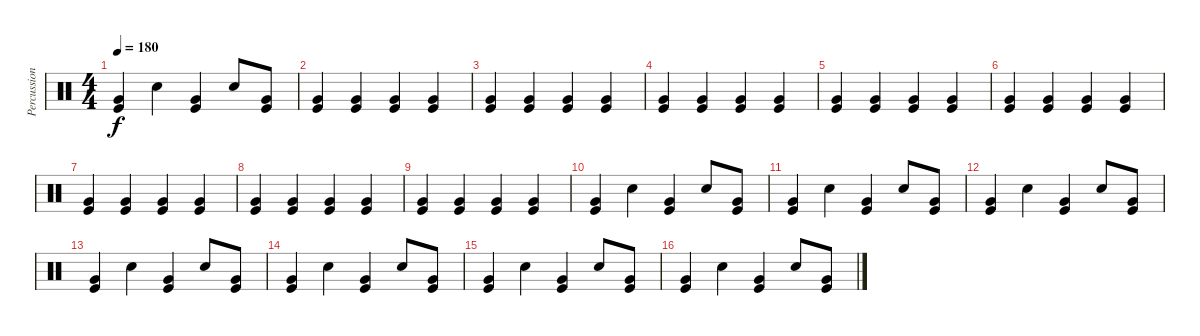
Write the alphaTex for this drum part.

\track ("Percussions" "Percussion") {instrument percussion}
\staff {score}
\articulation defaults
\ts (4 4)
\tempo 180
\clef neutral
\ks c
("Very Low Tom (hit)" "Kick (hit)").4{dy f} "Hand Clap (hit)".4 ("Very Low Tom (hit)" "Kick (hit)").4 "Hand Clap (hit)".8 ("Very Low Tom (hit)" "Kick (hit)").8 |
("Very Low Tom (hit)" "Kick (hit)").4 ("Very Low Tom (hit)" "Kick (hit)").4 ("Very Low Tom (hit)" "Kick (hit)").4 ("Very Low Tom (hit)" "Kick (hit)").4 |
("Very Low Tom (hit)" "Kick (hit)").4 ("Very Low Tom (hit)" "Kick (hit)").4 ("Very Low Tom (hit)" "Kick (hit)").4 ("Very Low Tom (hit)" "Kick (hit)").4 |
("Very Low Tom (hit)" "Kick (hit)").4 ("Very Low Tom (hit)" "Kick (hit)").4 ("Very Low Tom (hit)" "Kick (hit)").4 ("Very Low Tom (hit)" "Kick (hit)").4 |
("Very Low Tom (hit)" "Kick (hit)").4 ("Very Low Tom (hit)" "Kick (hit)").4 ("Very Low Tom (hit)" "Kick (hit)").4 ("Very Low Tom (hit)" "Kick (hit)").4 |
("Very Low Tom (hit)" "Kick (hit)").4 ("Very Low Tom (hit)" "Kick (hit)").4 ("Very Low Tom (hit)" "Kick (hit)").4 ("Very Low Tom (hit)" "Kick (hit)").4 |
("Very Low Tom (hit)" "Kick (hit)").4 ("Very Low Tom (hit)" "Kick (hit)").4 ("Very Low Tom (hit)" "Kick (hit)").4 ("Very Low Tom (hit)" "Kick (hit)").4 |
("Very Low Tom (hit)" "Kick (hit)").4 ("Very Low Tom (hit)" "Kick (hit)").4 ("Very Low Tom (hit)" "Kick (hit)").4 ("Very Low Tom (hit)" "Kick (hit)").4 |
("Very Low Tom (hit)" "Kick (hit)").4 ("Very Low Tom (hit)" "Kick (hit)").4 ("Very Low Tom (hit)" "Kick (hit)").4 ("Very Low Tom (hit)" "Kick (hit)").4 |
("Very Low Tom (hit)" "Kick (hit)").4 "Hand Clap (hit)".4 ("Very Low Tom (hit)" "Kick (hit)").4 "Hand Clap (hit)".8 ("Very Low Tom (hit)" "Kick (hit)").8 |
("Very Low Tom (hit)" "Kick (hit)").4 "Hand Clap (hit)".4 ("Very Low Tom (hit)" "Kick (hit)").4 "Hand Clap (hit)".8 ("Very Low Tom (hit)" "Kick (hit)").8 |
("Very Low Tom (hit)" "Kick (hit)").4 "Hand Clap (hit)".4 ("Very Low Tom (hit)" "Kick (hit)").4 "Hand Clap (hit)".8 ("Very Low Tom (hit)" "Kick (hit)").8 |
("Very Low Tom (hit)" "Kick (hit)").4 "Hand Clap (hit)".4 ("Very Low Tom (hit)" "Kick (hit)").4 "Hand Clap (hit)".8 ("Very Low Tom (hit)" "Kick (hit)").8 |
("Very Low Tom (hit)" "Kick (hit)").4 "Hand Clap (hit)".4 ("Very Low Tom (hit)" "Kick (hit)").4 "Hand Clap (hit)".8 ("Very Low Tom (hit)" "Kick (hit)").8 |
("Very Low Tom (hit)" "Kick (hit)").4 "Hand Clap (hit)".4 ("Very Low Tom (hit)" "Kick (hit)").4 "Hand Clap (hit)".8 ("Very Low Tom (hit)" "Kick (hit)").8 |
("Very Low Tom (hit)" "Kick (hit)").4 "Hand Clap (hit)".4 ("Very Low Tom (hit)" "Kick (hit)").4 "Hand Clap (hit)".8 ("Very Low Tom (hit)" "Kick (hit)").8
